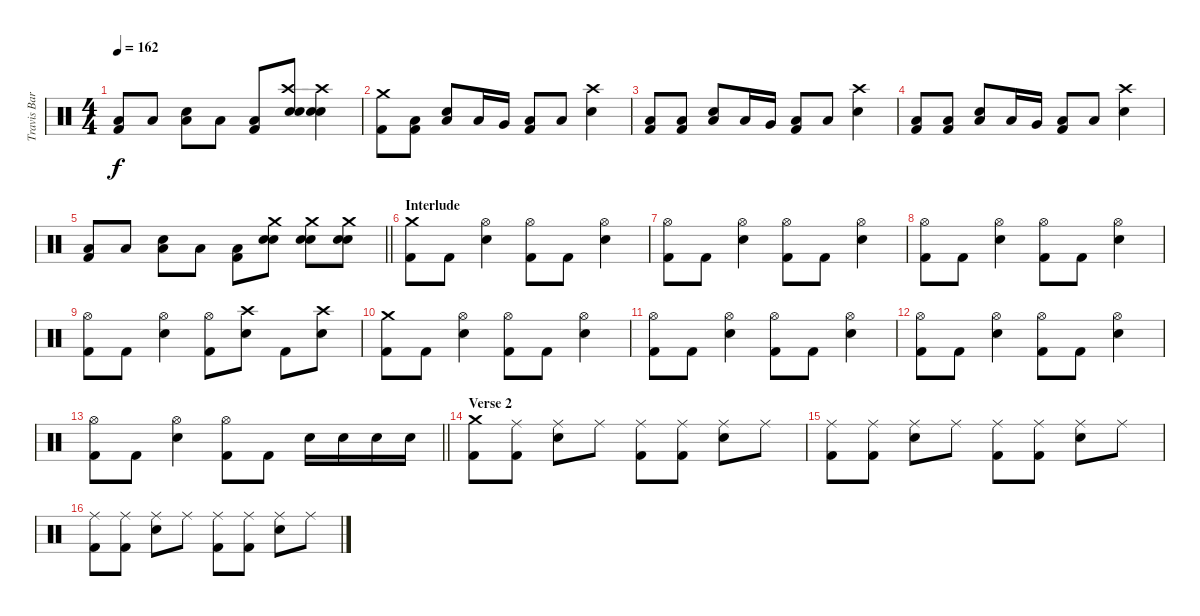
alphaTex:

\track ("Travis Barker - Drums" "Travis Bar") {instrument percussion}
\staff {score}
\articulation defaults
\ts (4 4)
\tempo 162
\clef neutral
\ks c
("Low Floor Tom (hit)" "Kick (hit) 2").8{dy f} "Low Floor Tom (hit)".8 ("Low Floor Tom (hit)" "Electric Snare (hit)").8 "Low Floor Tom (hit)".8 ("Low Floor Tom (hit)" "Kick (hit) 2").8 ("Crash high (hit)" "Hand Clap (hit)" "Electric Snare (hit)").8 ("Crash high (hit)" "Hand Clap (hit)" "Electric Snare (hit)").4 |
("Crash medium (hit)" "Kick (hit) 2").8 ("Low Floor Tom (hit)" "Kick (hit) 2").8 ("Low Floor Tom (hit)" "Electric Snare (hit)").8 "Low Tom (hit)".16 "Very Low Tom (hit)".16 ("Low Floor Tom (hit)" "Kick (hit) 2").8 "Low Floor Tom (hit)".8 ("Crash high (hit)" "Electric Snare (hit)").4 |
("Low Floor Tom (hit)" "Kick (hit) 2").8 ("Low Floor Tom (hit)" "Kick (hit) 2").8 ("Low Floor Tom (hit)" "Electric Snare (hit)").8 "Low Tom (hit)".16 "Very Low Tom (hit)".16 ("Low Floor Tom (hit)" "Kick (hit) 2").8 "Low Floor Tom (hit)".8 ("Crash high (hit)" "Electric Snare (hit)").4 |
("Low Floor Tom (hit)" "Kick (hit) 2").8 ("Low Floor Tom (hit)" "Kick (hit) 2").8 ("Low Floor Tom (hit)" "Electric Snare (hit)").8 "Low Tom (hit)".16 "Very Low Tom (hit)".16 ("Low Floor Tom (hit)" "Kick (hit) 2").8 "Low Floor Tom (hit)".8 ("Crash high (hit)" "Electric Snare (hit)").4 |
\barLineRight lightlight
("Low Floor Tom (hit)" "Kick (hit) 2").8 "Low Floor Tom (hit)".8 ("Low Floor Tom (hit)" "Electric Snare (hit)").8 "Low Floor Tom (hit)".8 ("Low Floor Tom (hit)" "Kick (hit) 2").8 ("Crash medium (hit)" "Hand Clap (hit)" "Electric Snare (hit)").8 ("Crash medium (hit)" "Hand Clap (hit)" "Electric Snare (hit)").8 ("Crash medium (hit)" "Hand Clap (hit)" "Electric Snare (hit)").8 |
\section ("" "Interlude")
("Crash medium (hit)" "Kick (hit) 2").8 "Kick (hit) 2".8 ("Hi-Hat (open)" "Electric Snare (hit)").4 ("Hi-Hat (open)" "Kick (hit) 2").8 "Kick (hit) 2".8 ("Hi-Hat (open)" "Electric Snare (hit)").4 |
("Hi-Hat (open)" "Kick (hit) 2").8 "Kick (hit) 2".8 ("Hi-Hat (open)" "Electric Snare (hit)").4 ("Hi-Hat (open)" "Kick (hit) 2").8 "Kick (hit) 2".8 ("Hi-Hat (open)" "Electric Snare (hit)").4 |
("Hi-Hat (open)" "Kick (hit) 2").8 "Kick (hit) 2".8 ("Hi-Hat (open)" "Electric Snare (hit)").4 ("Hi-Hat (open)" "Kick (hit) 2").8 "Kick (hit) 2".8 ("Hi-Hat (open)" "Electric Snare (hit)").4 |
("Hi-Hat (open)" "Kick (hit) 2").8 "Kick (hit) 2".8 ("Hi-Hat (open)" "Electric Snare (hit)").4 ("Hi-Hat (open)" "Kick (hit) 2").8 ("Crash high (hit)" "Electric Snare (hit)").8 "Kick (hit) 2".8 ("Crash high (hit)" "Electric Snare (hit)").8 |
("Crash medium (hit)" "Kick (hit) 2").8 "Kick (hit) 2".8 ("Hi-Hat (open)" "Electric Snare (hit)").4 ("Hi-Hat (open)" "Kick (hit) 2").8 "Kick (hit) 2".8 ("Hi-Hat (open)" "Electric Snare (hit)").4 |
("Hi-Hat (open)" "Kick (hit) 2").8 "Kick (hit) 2".8 ("Hi-Hat (open)" "Electric Snare (hit)").4 ("Hi-Hat (open)" "Kick (hit) 2").8 "Kick (hit) 2".8 ("Hi-Hat (open)" "Electric Snare (hit)").4 |
("Hi-Hat (open)" "Kick (hit) 2").8 "Kick (hit) 2".8 ("Hi-Hat (open)" "Electric Snare (hit)").4 ("Hi-Hat (open)" "Kick (hit) 2").8 "Kick (hit) 2".8 ("Hi-Hat (open)" "Electric Snare (hit)").4 |
\barLineRight lightlight
("Hi-Hat (open)" "Kick (hit) 2").8 "Kick (hit) 2".8 ("Hi-Hat (open)" "Electric Snare (hit)").4 ("Hi-Hat (open)" "Kick (hit) 2").8 "Kick (hit) 2".8 "Electric Snare (hit)".16 "Electric Snare (hit)".16 "Electric Snare (hit)".16 "Electric Snare (hit)".16 |
\section ("" "Verse 2")
("Crash medium (hit)" "Kick (hit) 2").8 ("Ride (middle)" "Kick (hit) 2").8 ("Ride (middle)" "Electric Snare (hit)").8 "Ride (middle)".8 ("Ride (middle)" "Kick (hit) 2").8 ("Ride (middle)" "Kick (hit) 2").8 ("Ride (middle)" "Electric Snare (hit)").8 "Ride (middle)".8 |
("Ride (middle)" "Kick (hit) 2").8 ("Ride (middle)" "Kick (hit) 2").8 ("Ride (middle)" "Electric Snare (hit)").8 "Ride (middle)".8 ("Ride (middle)" "Kick (hit) 2").8 ("Ride (middle)" "Kick (hit) 2").8 ("Ride (middle)" "Electric Snare (hit)").8 "Ride (middle)".8 |
("Ride (middle)" "Kick (hit) 2").8 ("Ride (middle)" "Kick (hit) 2").8 ("Ride (middle)" "Electric Snare (hit)").8 "Ride (middle)".8 ("Ride (middle)" "Kick (hit) 2").8 ("Ride (middle)" "Kick (hit) 2").8 ("Ride (middle)" "Electric Snare (hit)").8 "Ride (middle)".8
